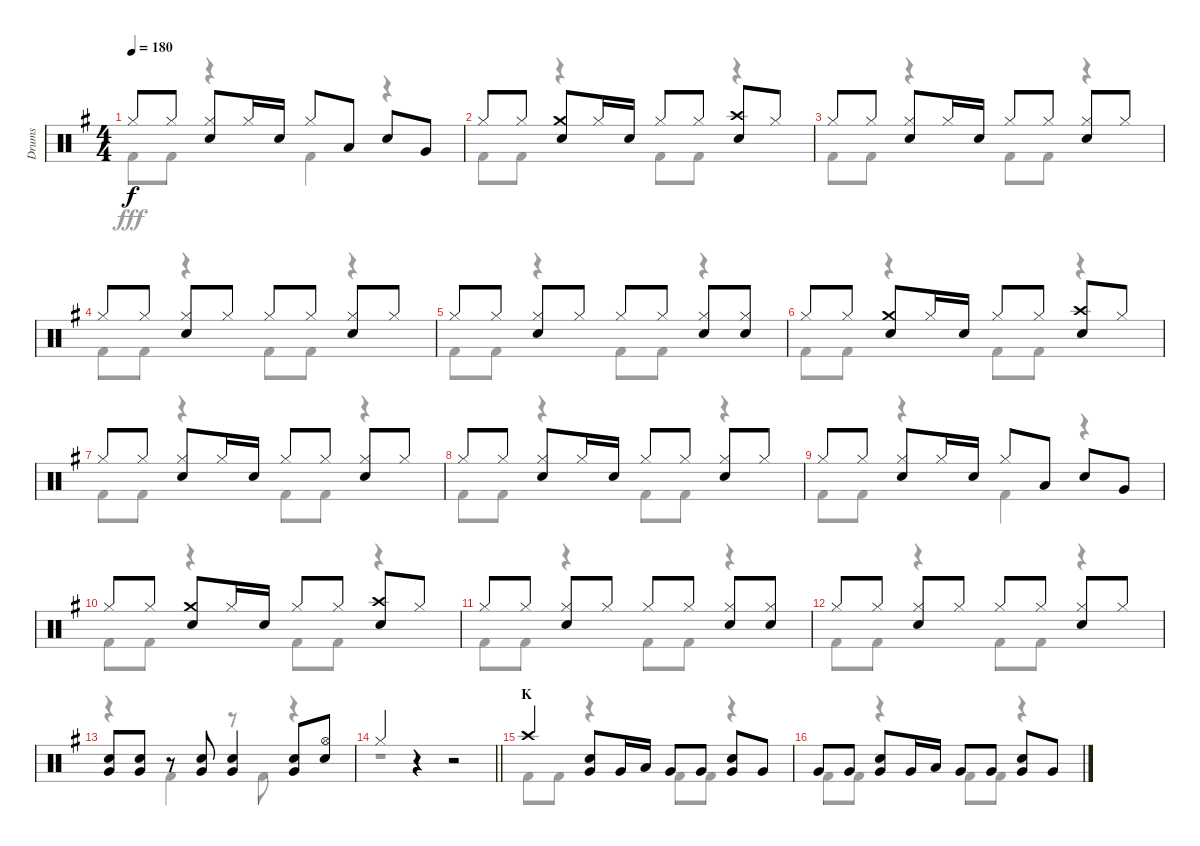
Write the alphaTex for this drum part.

\track ("Drums" "Drums") {instrument percussion}
\staff {score}
\articulation defaults
\voice
\ts (4 4)
\tempo 180
\clef neutral
\ks g "Hi-Hat (closed)".8{dy f} "Hi-Hat (closed)".8
("Hi-Hat (closed)" "Snare (hit) 2").8 "Hi-Hat (closed)".16 "Snare (hit) 2".16 "Hi-Hat (closed)".8 "Low Tom (hit)".8 "Snare (hit) 2".8 "Very Low Tom (hit)".8 |
"Hi-Hat (closed)".8 "Hi-Hat (closed)".8 ("Crash medium (hit)" "Snare (hit) 2").8 "Hi-Hat (closed)".16 "Snare (hit) 2".16 "Hi-Hat (closed)".8 "Hi-Hat (closed)".8 ("Crash high (hit)" "Snare (hit) 2").8 "Hi-Hat (closed)".8 |
"Hi-Hat (closed)".8 "Hi-Hat (closed)".8 ("Hi-Hat (closed)" "Snare (hit) 2").8 "Hi-Hat (closed)".16 "Snare (hit) 2".16 "Hi-Hat (closed)".8 "Hi-Hat (closed)".8 ("Hi-Hat (closed)" "Snare (hit) 2").8 "Hi-Hat (closed)".8 |
"Hi-Hat (closed)".8 "Hi-Hat (closed)".8 ("Hi-Hat (closed)" "Snare (hit) 2").8 "Hi-Hat (closed)".8 "Hi-Hat (closed)".8 "Hi-Hat (closed)".8 ("Hi-Hat (closed)" "Snare (hit) 2").8 "Hi-Hat (closed)".8 |
"Hi-Hat (closed)".8 "Hi-Hat (closed)".8 ("Hi-Hat (closed)" "Snare (hit) 2").8 "Hi-Hat (closed)".8 "Hi-Hat (closed)".8 "Hi-Hat (closed)".8 ("Hi-Hat (closed)" "Snare (hit) 2").8 ("Hi-Hat (closed)" "Snare (hit) 2").8 |
"Hi-Hat (closed)".8 "Hi-Hat (closed)".8 ("Crash medium (hit)" "Snare (hit) 2").8 "Hi-Hat (closed)".16 "Snare (hit) 2".16 "Hi-Hat (closed)".8 "Hi-Hat (closed)".8 ("Crash high (hit)" "Snare (hit) 2").8 "Hi-Hat (closed)".8 |
"Hi-Hat (closed)".8 "Hi-Hat (closed)".8 ("Hi-Hat (closed)" "Snare (hit) 2").8 "Hi-Hat (closed)".16 "Snare (hit) 2".16 "Hi-Hat (closed)".8 "Hi-Hat (closed)".8 ("Hi-Hat (closed)" "Snare (hit) 2").8 "Hi-Hat (closed)".8 |
"Hi-Hat (closed)".8 "Hi-Hat (closed)".8 ("Hi-Hat (closed)" "Snare (hit) 2").8 "Hi-Hat (closed)".16 "Snare (hit) 2".16 "Hi-Hat (closed)".8 "Hi-Hat (closed)".8 ("Hi-Hat (closed)" "Snare (hit) 2").8 "Hi-Hat (closed)".8 |
"Hi-Hat (closed)".8 "Hi-Hat (closed)".8 ("Hi-Hat (closed)" "Snare (hit) 2").8 "Hi-Hat (closed)".16 "Snare (hit) 2".16 "Hi-Hat (closed)".8 "Low Tom (hit)".8 "Snare (hit) 2".8 "Very Low Tom (hit)".8 |
"Hi-Hat (closed)".8 "Hi-Hat (closed)".8 ("Crash medium (hit)" "Snare (hit) 2").8 "Hi-Hat (closed)".16 "Snare (hit) 2".16 "Hi-Hat (closed)".8 "Hi-Hat (closed)".8 ("Crash high (hit)" "Snare (hit) 2").8 "Hi-Hat (closed)".8 |
"Hi-Hat (closed)".8 "Hi-Hat (closed)".8 ("Hi-Hat (closed)" "Snare (hit) 2").8 "Hi-Hat (closed)".8 "Hi-Hat (closed)".8 "Hi-Hat (closed)".8 ("Hi-Hat (closed)" "Snare (hit) 2").8 ("Hi-Hat (closed)" "Snare (hit) 2").8 |
"Hi-Hat (closed)".8 "Hi-Hat (closed)".8 ("Hi-Hat (closed)" "Snare (hit) 2").8 "Hi-Hat (closed)".8 "Hi-Hat (closed)".8 "Hi-Hat (closed)".8 ("Hi-Hat (closed)" "Snare (hit) 2").8 "Hi-Hat (closed)".8 |
("Snare (hit) 2" "Very Low Tom (hit)").8 ("Snare (hit) 2" "Very Low Tom (hit)").8 r.8 ("Snare (hit) 2" "Very Low Tom (hit)").8 ("Snare (hit) 2" "Very Low Tom (hit)").4 ("Snare (hit) 2" "Very Low Tom (hit)").8 ("Hi-Hat (open)" "Snare (hit) 2").8 |
\barLineRight lightlight "Hi-Hat (closed)".4
r.4 r.2 |
\section ("" "K")
"Crash high (hit)".4 ("Snare (hit) 2" "Very Low Tom (hit)").8 "Very Low Tom (hit)".16 "Low Tom (hit)".16 "Very Low Tom (hit)".8 "Very Low Tom (hit)".8 ("Snare (hit) 2" "Very Low Tom (hit)").8 "Very Low Tom (hit)".8 |
"Very Low Tom (hit)".8 "Very Low Tom (hit)".8 ("Snare (hit) 2" "Very Low Tom (hit)").8 "Very Low Tom (hit)".16 "Low Tom (hit)".16 "Very Low Tom (hit)".8 "Very Low Tom (hit)".8 ("Snare (hit) 2" "Very Low Tom (hit)").8 "Very Low Tom (hit)".8
\voice
\clef neutral
\ottava regular
\simile none
\ks g "Kick (hit) 2".8{dy fff} "Kick (hit) 2".8
r.4 "Kick (hit) 2".4 r.4 |
"Kick (hit) 2".8 "Kick (hit) 2".8 r.4 "Kick (hit) 2".8 "Kick (hit) 2".8 r.4 |
"Kick (hit) 2".8 "Kick (hit) 2".8 r.4 "Kick (hit) 2".8 "Kick (hit) 2".8 r.4 |
"Kick (hit) 2".8 "Kick (hit) 2".8 r.4 "Kick (hit) 2".8 "Kick (hit) 2".8 r.4 |
"Kick (hit) 2".8 "Kick (hit) 2".8 r.4 "Kick (hit) 2".8 "Kick (hit) 2".8 r.4 |
"Kick (hit) 2".8 "Kick (hit) 2".8 r.4 "Kick (hit) 2".8 "Kick (hit) 2".8 r.4 |
"Kick (hit) 2".8 "Kick (hit) 2".8 r.4 "Kick (hit) 2".8 "Kick (hit) 2".8 r.4 |
"Kick (hit) 2".8 "Kick (hit) 2".8 r.4 "Kick (hit) 2".8 "Kick (hit) 2".8 r.4 |
"Kick (hit) 2".8 "Kick (hit) 2".8 r.4 "Kick (hit) 2".4 r.4 |
"Kick (hit) 2".8 "Kick (hit) 2".8 r.4 "Kick (hit) 2".8 "Kick (hit) 2".8 r.4 |
"Kick (hit) 2".8 "Kick (hit) 2".8 r.4 "Kick (hit) 2".8 "Kick (hit) 2".8 r.4 |
"Kick (hit) 2".8 "Kick (hit) 2".8 r.4 "Kick (hit) 2".8 "Kick (hit) 2".8 r.4 |
r.4 "Kick (hit) 2".4 r.8 "Kick (hit) 2".8 r.4 |
\barLineRight lightlight
r.1 |
"Kick (hit) 2".8 "Kick (hit) 2".8 r.4 "Kick (hit) 2".8 "Kick (hit) 2".8 r.4 |
"Kick (hit) 2".8 "Kick (hit) 2".8 r.4 "Kick (hit) 2".8 "Kick (hit) 2".8 r.4
